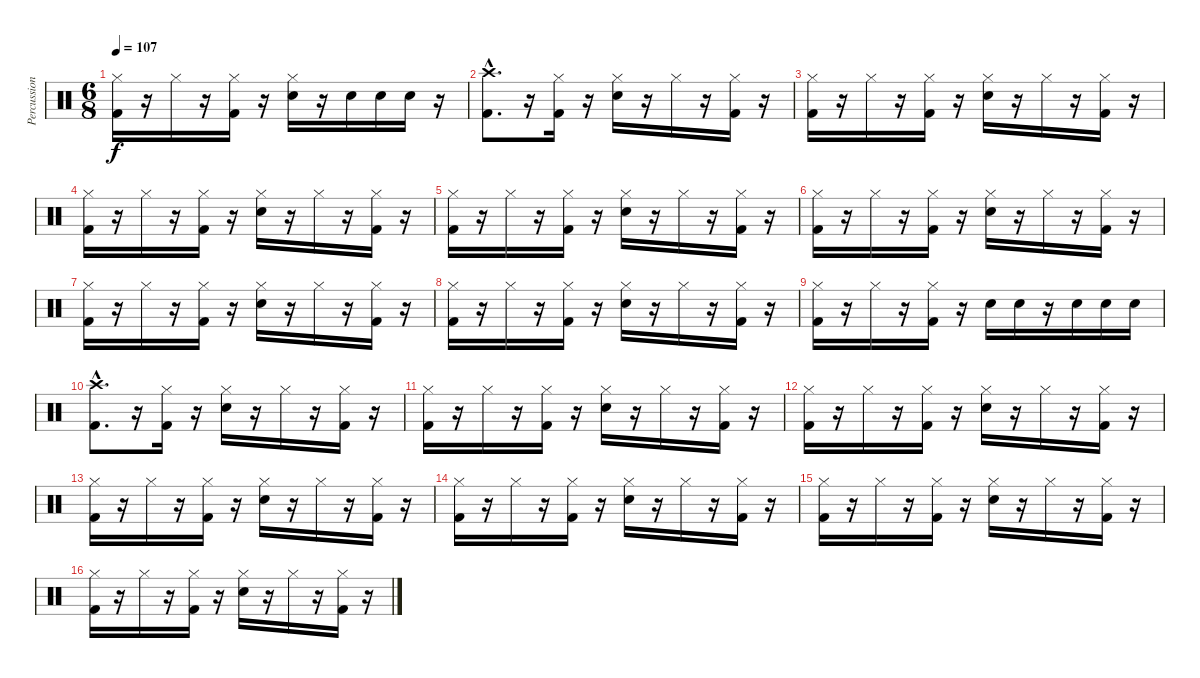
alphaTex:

\track ("Percussions" "Percussion") {instrument percussion}
\staff {score}
\articulation defaults
\ts (6 8)
\tempo 107
\clef neutral
\ks c
("Kick (hit) 2" "Hi-Hat (closed)").16{dy f} r.16 "Hi-Hat (closed)".16 r.16 ("Kick (hit) 2" "Hi-Hat (closed)").16 r.16 ("Snare (hit) 2" "Hi-Hat (closed)").16 r.16 "Snare (hit) 2".16 "Snare (hit) 2".16 "Snare (hit) 2".16 r.16 |
("Kick (hit) 2"{hac} "Crash high (hit)"{hac}).8{d} r.16 ("Kick (hit) 2" "Hi-Hat (closed)").16 r.16 ("Snare (hit) 2" "Hi-Hat (closed)").16 r.16 "Hi-Hat (closed)".16 r.16 ("Kick (hit) 2" "Hi-Hat (closed)").16 r.16 |
("Kick (hit) 2" "Hi-Hat (closed)").16 r.16 "Hi-Hat (closed)".16 r.16 ("Kick (hit) 2" "Hi-Hat (closed)").16 r.16 ("Snare (hit) 2" "Hi-Hat (closed)").16 r.16 "Hi-Hat (closed)".16 r.16 ("Kick (hit) 2" "Hi-Hat (closed)").16 r.16 |
("Kick (hit) 2" "Hi-Hat (closed)").16 r.16 "Hi-Hat (closed)".16 r.16 ("Kick (hit) 2" "Hi-Hat (closed)").16 r.16 ("Snare (hit) 2" "Hi-Hat (closed)").16 r.16 "Hi-Hat (closed)".16 r.16 ("Kick (hit) 2" "Hi-Hat (closed)").16 r.16 |
("Kick (hit) 2" "Hi-Hat (closed)").16 r.16 "Hi-Hat (closed)".16 r.16 ("Kick (hit) 2" "Hi-Hat (closed)").16 r.16 ("Snare (hit) 2" "Hi-Hat (closed)").16 r.16 "Hi-Hat (closed)".16 r.16 ("Kick (hit) 2" "Hi-Hat (closed)").16 r.16 |
("Kick (hit) 2" "Hi-Hat (closed)").16 r.16 "Hi-Hat (closed)".16 r.16 ("Kick (hit) 2" "Hi-Hat (closed)").16 r.16 ("Snare (hit) 2" "Hi-Hat (closed)").16 r.16 "Hi-Hat (closed)".16 r.16 ("Kick (hit) 2" "Hi-Hat (closed)").16 r.16 |
("Kick (hit) 2" "Hi-Hat (closed)").16 r.16 "Hi-Hat (closed)".16 r.16 ("Kick (hit) 2" "Hi-Hat (closed)").16 r.16 ("Snare (hit) 2" "Hi-Hat (closed)").16 r.16 "Hi-Hat (closed)".16 r.16 ("Kick (hit) 2" "Hi-Hat (closed)").16 r.16 |
("Kick (hit) 2" "Hi-Hat (closed)").16 r.16 "Hi-Hat (closed)".16 r.16 ("Kick (hit) 2" "Hi-Hat (closed)").16 r.16 ("Snare (hit) 2" "Hi-Hat (closed)").16 r.16 "Hi-Hat (closed)".16 r.16 ("Kick (hit) 2" "Hi-Hat (closed)").16 r.16 |
("Kick (hit) 2" "Hi-Hat (closed)").16 r.16 "Hi-Hat (closed)".16 r.16 ("Kick (hit) 2" "Hi-Hat (closed)").16 r.16 "Snare (hit) 2".16 "Snare (hit) 2".16 r.16 "Snare (hit) 2".16 "Snare (hit) 2".16 "Snare (hit) 2".16 |
("Kick (hit) 2"{hac} "Crash high (hit)"{hac}).8{d} r.16 ("Kick (hit) 2" "Hi-Hat (closed)").16 r.16 ("Snare (hit) 2" "Hi-Hat (closed)").16 r.16 "Hi-Hat (closed)".16 r.16 ("Kick (hit) 2" "Hi-Hat (closed)").16 r.16 |
("Kick (hit) 2" "Hi-Hat (closed)").16 r.16 "Hi-Hat (closed)".16 r.16 ("Kick (hit) 2" "Hi-Hat (closed)").16 r.16 ("Snare (hit) 2" "Hi-Hat (closed)").16 r.16 "Hi-Hat (closed)".16 r.16 ("Kick (hit) 2" "Hi-Hat (closed)").16 r.16 |
("Kick (hit) 2" "Hi-Hat (closed)").16 r.16 "Hi-Hat (closed)".16 r.16 ("Kick (hit) 2" "Hi-Hat (closed)").16 r.16 ("Snare (hit) 2" "Hi-Hat (closed)").16 r.16 "Hi-Hat (closed)".16 r.16 ("Kick (hit) 2" "Hi-Hat (closed)").16 r.16 |
("Kick (hit) 2" "Hi-Hat (closed)").16 r.16 "Hi-Hat (closed)".16 r.16 ("Kick (hit) 2" "Hi-Hat (closed)").16 r.16 ("Snare (hit) 2" "Hi-Hat (closed)").16 r.16 "Hi-Hat (closed)".16 r.16 ("Kick (hit) 2" "Hi-Hat (closed)").16 r.16 |
("Kick (hit) 2" "Hi-Hat (closed)").16 r.16 "Hi-Hat (closed)".16 r.16 ("Kick (hit) 2" "Hi-Hat (closed)").16 r.16 ("Snare (hit) 2" "Hi-Hat (closed)").16 r.16 "Hi-Hat (closed)".16 r.16 ("Kick (hit) 2" "Hi-Hat (closed)").16 r.16 |
("Kick (hit) 2" "Hi-Hat (closed)").16 r.16 "Hi-Hat (closed)".16 r.16 ("Kick (hit) 2" "Hi-Hat (closed)").16 r.16 ("Snare (hit) 2" "Hi-Hat (closed)").16 r.16 "Hi-Hat (closed)".16 r.16 ("Kick (hit) 2" "Hi-Hat (closed)").16 r.16 |
("Kick (hit) 2" "Hi-Hat (closed)").16 r.16 "Hi-Hat (closed)".16 r.16 ("Kick (hit) 2" "Hi-Hat (closed)").16 r.16 ("Snare (hit) 2" "Hi-Hat (closed)").16 r.16 "Hi-Hat (closed)".16 r.16 ("Kick (hit) 2" "Hi-Hat (closed)").16 r.16
